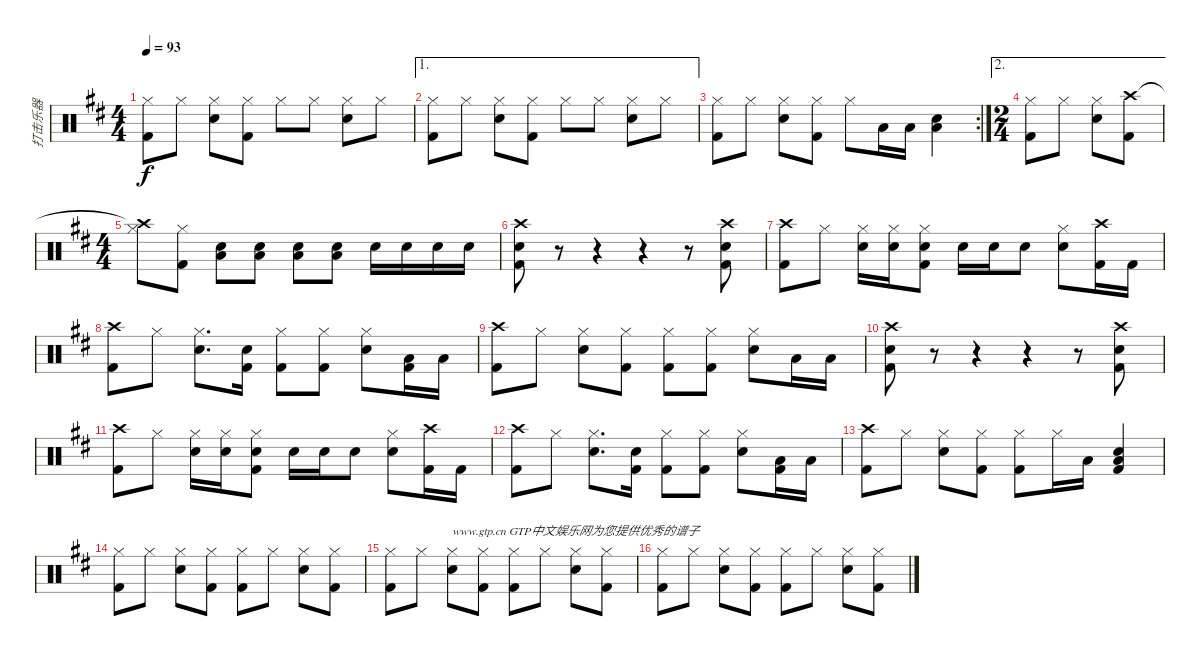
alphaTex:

\track ("打击乐器" "打击乐器") {instrument percussion}
\staff {score}
\articulation defaults
\ts (4 4)
\tempo 93
\clef neutral
\ks d
("Hi-Hat (closed)" "Kick (hit) 2").8{dy f} "Hi-Hat (closed)".8 ("Hi-Hat (closed)" "Snare (hit) 2").8 ("Hi-Hat (closed)" "Kick (hit) 2").8 "Hi-Hat (closed)".8 "Hi-Hat (closed)".8 ("Hi-Hat (closed)" "Snare (hit) 2").8 "Hi-Hat (closed)".8 |
\ae 1
("Hi-Hat (closed)" "Kick (hit) 2").8 "Hi-Hat (closed)".8 ("Hi-Hat (closed)" "Snare (hit) 2").8 ("Hi-Hat (closed)" "Kick (hit) 2").8 "Hi-Hat (closed)".8 "Hi-Hat (closed)".8 ("Hi-Hat (closed)" "Snare (hit) 2").8 "Hi-Hat (closed)".8 |
\rc 2
("Hi-Hat (closed)" "Kick (hit) 2").8 "Hi-Hat (closed)".8 ("Hi-Hat (closed)" "Snare (hit) 2").8 ("Hi-Hat (closed)" "Kick (hit) 2").8 "Hi-Hat (closed)".8 "Low Tom (hit)".16 "Low Tom (hit)".16 ("Low Tom (hit)" "Snare (hit) 2").4 |
\ae 2
\ts (2 4)
("Hi-Hat (closed)" "Kick (hit) 2").8 "Hi-Hat (closed)".8 ("Hi-Hat (closed)" "Snare (hit) 2").8 ("Crash high (hit)" "Kick (hit) 2").8 |
\ts (4 4)
("Crash high (hit)"{t} "Hi-Hat (closed)").8 ("Hi-Hat (closed)" "Kick (hit) 2").8 ("Low Tom (hit)" "Snare (hit) 2").8 ("Low Tom (hit)" "Snare (hit) 2").8 ("Low Tom (hit)" "Snare (hit) 2").8 ("Low Tom (hit)" "Snare (hit) 2").8 "Snare (hit) 2".16 "Snare (hit) 2".16 "Snare (hit) 2".16 "Snare (hit) 2".16 |
("Crash high (hit)" "Snare (hit) 2" "Kick (hit) 2").8 r.8 r.4 r.4 r.8 ("Crash high (hit)" "Snare (hit) 2" "Kick (hit) 2").8 |
("Crash high (hit)" "Kick (hit) 2").8 "Hi-Hat (closed)".8 ("Hi-Hat (closed)" "Snare (hit) 2").16 ("Hi-Hat (closed)" "Snare (hit) 2").16 ("Hi-Hat (closed)" "Snare (hit) 2" "Kick (hit) 2").8 "Snare (hit) 2".16 "Snare (hit) 2".16 "Snare (hit) 2".8 ("Hi-Hat (closed)" "Snare (hit) 2").8 ("Crash high (hit)" "Kick (hit) 2").16 "Kick (hit) 2".16 |
("Crash high (hit)" "Kick (hit) 2").8 "Hi-Hat (closed)".8 ("Hi-Hat (closed)" "Snare (hit) 2").8{d} ("Snare (hit) 2" "Kick (hit) 2").16 ("Hi-Hat (closed)" "Kick (hit) 2").8 ("Hi-Hat (closed)" "Kick (hit) 2").8 ("Hi-Hat (closed)" "Snare (hit) 2").8 ("Low Tom (hit)" "Kick (hit) 2").16 "Low Tom (hit)".16 |
("Crash high (hit)" "Kick (hit) 2").8 "Hi-Hat (closed)".8 ("Hi-Hat (closed)" "Snare (hit) 2").8 ("Hi-Hat (closed)" "Kick (hit) 2").8 ("Hi-Hat (closed)" "Kick (hit) 2").8 ("Hi-Hat (closed)" "Kick (hit) 2").8 ("Hi-Hat (closed)" "Snare (hit) 2").8 "Low Tom (hit)".16 "Low Tom (hit)".16 |
("Crash high (hit)" "Snare (hit) 2" "Kick (hit) 2").8 r.8 r.4 r.4 r.8 ("Crash high (hit)" "Snare (hit) 2" "Kick (hit) 2").8 |
("Crash high (hit)" "Kick (hit) 2").8 "Hi-Hat (closed)".8 ("Hi-Hat (closed)" "Snare (hit) 2").16 ("Hi-Hat (closed)" "Snare (hit) 2").16 ("Hi-Hat (closed)" "Snare (hit) 2" "Kick (hit) 2").8 "Snare (hit) 2".16 "Snare (hit) 2".16 "Snare (hit) 2".8 ("Hi-Hat (closed)" "Snare (hit) 2").8 ("Crash high (hit)" "Kick (hit) 2").16 "Kick (hit) 2".16 |
("Crash high (hit)" "Kick (hit) 2").8 "Hi-Hat (closed)".8 ("Hi-Hat (closed)" "Snare (hit) 2").8{d} ("Snare (hit) 2" "Kick (hit) 2").16 ("Hi-Hat (closed)" "Kick (hit) 2").8 ("Hi-Hat (closed)" "Kick (hit) 2").8 ("Hi-Hat (closed)" "Snare (hit) 2").8 ("Low Tom (hit)" "Kick (hit) 2").16 "Low Tom (hit)".16 |
("Crash high (hit)" "Kick (hit) 2").8 "Hi-Hat (closed)".8 ("Hi-Hat (closed)" "Snare (hit) 2").8 ("Hi-Hat (closed)" "Kick (hit) 2").8 ("Hi-Hat (closed)" "Kick (hit) 2").8 "Hi-Hat (closed)".16 "Low Tom (hit)".16 ("Low Tom (hit)" "Snare (hit) 2" "Kick (hit) 2").4 |
("Hi-Hat (closed)" "Kick (hit) 2").8 "Hi-Hat (closed)".8 ("Hi-Hat (closed)" "Snare (hit) 2").8 ("Hi-Hat (closed)" "Kick (hit) 2").8 ("Hi-Hat (closed)" "Kick (hit) 2").8 "Hi-Hat (closed)".8 ("Hi-Hat (closed)" "Snare (hit) 2").8 ("Hi-Hat (closed)" "Kick (hit) 2").8 |
("Hi-Hat (closed)" "Kick (hit) 2").8 "Hi-Hat (closed)".8 ("Hi-Hat (closed)" "Snare (hit) 2").8{txt "www.gtp.cn GTP中文娱乐网为您提供优秀的谱子"} ("Hi-Hat (closed)" "Kick (hit) 2").8 ("Hi-Hat (closed)" "Kick (hit) 2").8 "Hi-Hat (closed)".8 ("Hi-Hat (closed)" "Snare (hit) 2").8 ("Hi-Hat (closed)" "Kick (hit) 2").8 |
("Hi-Hat (closed)" "Kick (hit) 2").8 "Hi-Hat (closed)".8 ("Hi-Hat (closed)" "Snare (hit) 2").8 ("Hi-Hat (closed)" "Kick (hit) 2").8 ("Hi-Hat (closed)" "Kick (hit) 2").8 "Hi-Hat (closed)".8 ("Hi-Hat (closed)" "Snare (hit) 2").8 ("Hi-Hat (closed)" "Kick (hit) 2").8
